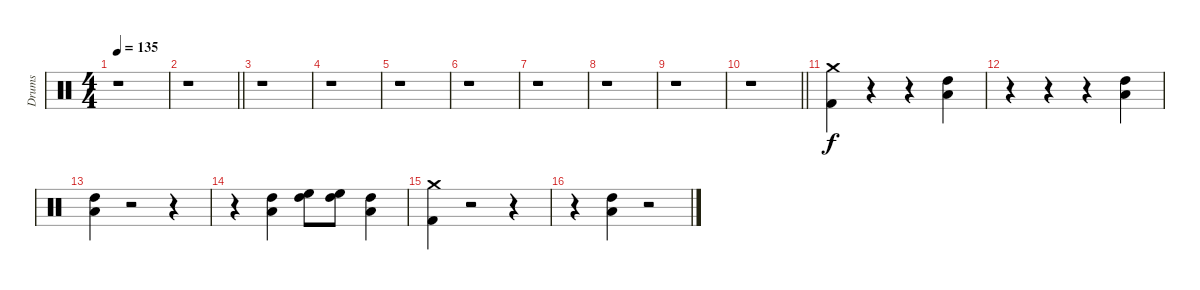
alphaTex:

\track ("Drums" "Drums") {instrument percussion}
\staff {score}
\articulation defaults
\ts (4 4)
\tempo 135
\clef neutral
\ks c
r.1{dy f} |
\barLineRight lightlight
r.1 |
\section ("" "")
r.1 |
r.1 |
r.1 |
r.1 |
r.1 |
r.1 |
r.1 |
\barLineRight lightlight
r.1 |
\section ("" "")
("Crash medium (hit)" "Kick (hit) 2").4 r.4 r.4 ("High Tom (hit)" "Low Tom (hit)").4 |
r.4 r.4 r.4 ("High Tom (hit)" "Low Tom (hit)").4 |
("High Tom (hit)" "Low Tom (hit)").4 r.2 r.4 |
r.4 ("High Tom (hit)" "Low Tom (hit)").4 ("High Floor Tom (hit)" "High Tom (hit)").8 ("High Floor Tom (hit)" "High Tom (hit)").8 ("High Tom (hit)" "Low Tom (hit)").4 |
("Crash medium (hit)" "Kick (hit) 2").4 r.2 r.4 |
r.4 ("High Tom (hit)" "Low Tom (hit)").4 r.2
